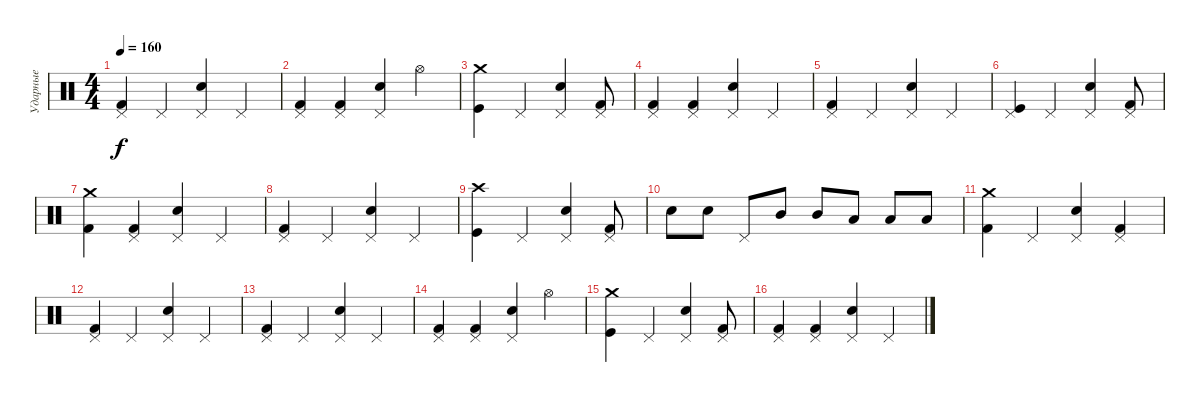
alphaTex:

\track ("Ударные" "Ударные") {instrument percussion}
\staff {score}
\articulation defaults
\ts (4 4)
\tempo 160
\clef neutral
\ks c
("Pedal Hi-Hat (hit)" "Kick (hit) 2").4{dy f} "Pedal Hi-Hat (hit)".4 ("Pedal Hi-Hat (hit)" "Snare (hit) 2").4 "Pedal Hi-Hat (hit)".4 |
("Pedal Hi-Hat (hit)" "Kick (hit) 2").4 ("Pedal Hi-Hat (hit)" "Kick (hit) 2").4 ("Pedal Hi-Hat (hit)" "Snare (hit) 2").4 "Hi-Hat (open)".4 |
("Crash medium (hit)" "Kick (hit)").4 "Pedal Hi-Hat (hit)".4 ("Pedal Hi-Hat (hit)" "Snare (hit) 2").4 ("Pedal Hi-Hat (hit)" "Kick (hit) 2").8 |
("Pedal Hi-Hat (hit)" "Kick (hit) 2").4 ("Pedal Hi-Hat (hit)" "Kick (hit) 2").4 ("Pedal Hi-Hat (hit)" "Snare (hit) 2").4 "Pedal Hi-Hat (hit)".4 |
("Pedal Hi-Hat (hit)" "Kick (hit) 2").4 "Pedal Hi-Hat (hit)".4 ("Pedal Hi-Hat (hit)" "Snare (hit) 2").4 "Pedal Hi-Hat (hit)".4 |
("Pedal Hi-Hat (hit)" "Kick (hit)").4 "Pedal Hi-Hat (hit)".4 ("Pedal Hi-Hat (hit)" "Snare (hit) 2").4 ("Pedal Hi-Hat (hit)" "Kick (hit) 2").8 |
("Crash medium (hit)" "Kick (hit) 2").4 ("Pedal Hi-Hat (hit)" "Kick (hit) 2").4 ("Pedal Hi-Hat (hit)" "Snare (hit) 2").4 "Pedal Hi-Hat (hit)".4 |
("Pedal Hi-Hat (hit)" "Kick (hit) 2").4 "Pedal Hi-Hat (hit)".4 ("Pedal Hi-Hat (hit)" "Snare (hit) 2").4 "Pedal Hi-Hat (hit)".4 |
("Crash high (hit)" "Kick (hit)").4 "Pedal Hi-Hat (hit)".4 ("Pedal Hi-Hat (hit)" "Snare (hit) 2").4 ("Pedal Hi-Hat (hit)" "Kick (hit) 2").8 |
"Snare (hit) 2".8 "Snare (hit) 2".8 "Pedal Hi-Hat (hit)".8 "Mid Tom (hit)".8 "Mid Tom (hit)".8 "Low Tom (hit)".8 "Low Tom (hit)".8 "Low Floor Tom (hit)".8 |
("Crash medium (hit)" "Kick (hit) 2").4 "Pedal Hi-Hat (hit)".4 ("Pedal Hi-Hat (hit)" "Snare (hit) 2").4 ("Pedal Hi-Hat (hit)" "Kick (hit) 2").4 |
("Pedal Hi-Hat (hit)" "Kick (hit) 2").4 "Pedal Hi-Hat (hit)".4 ("Pedal Hi-Hat (hit)" "Snare (hit) 2").4 "Pedal Hi-Hat (hit)".4 |
("Pedal Hi-Hat (hit)" "Kick (hit) 2").4 "Pedal Hi-Hat (hit)".4 ("Pedal Hi-Hat (hit)" "Snare (hit) 2").4 "Pedal Hi-Hat (hit)".4 |
("Pedal Hi-Hat (hit)" "Kick (hit) 2").4 ("Pedal Hi-Hat (hit)" "Kick (hit) 2").4 ("Pedal Hi-Hat (hit)" "Snare (hit) 2").4 "Hi-Hat (open)".4 |
("Crash medium (hit)" "Kick (hit)").4 "Pedal Hi-Hat (hit)".4 ("Pedal Hi-Hat (hit)" "Snare (hit) 2").4 ("Pedal Hi-Hat (hit)" "Kick (hit) 2").8 |
("Pedal Hi-Hat (hit)" "Kick (hit) 2").4 ("Pedal Hi-Hat (hit)" "Kick (hit) 2").4 ("Pedal Hi-Hat (hit)" "Snare (hit) 2").4 "Pedal Hi-Hat (hit)".4
